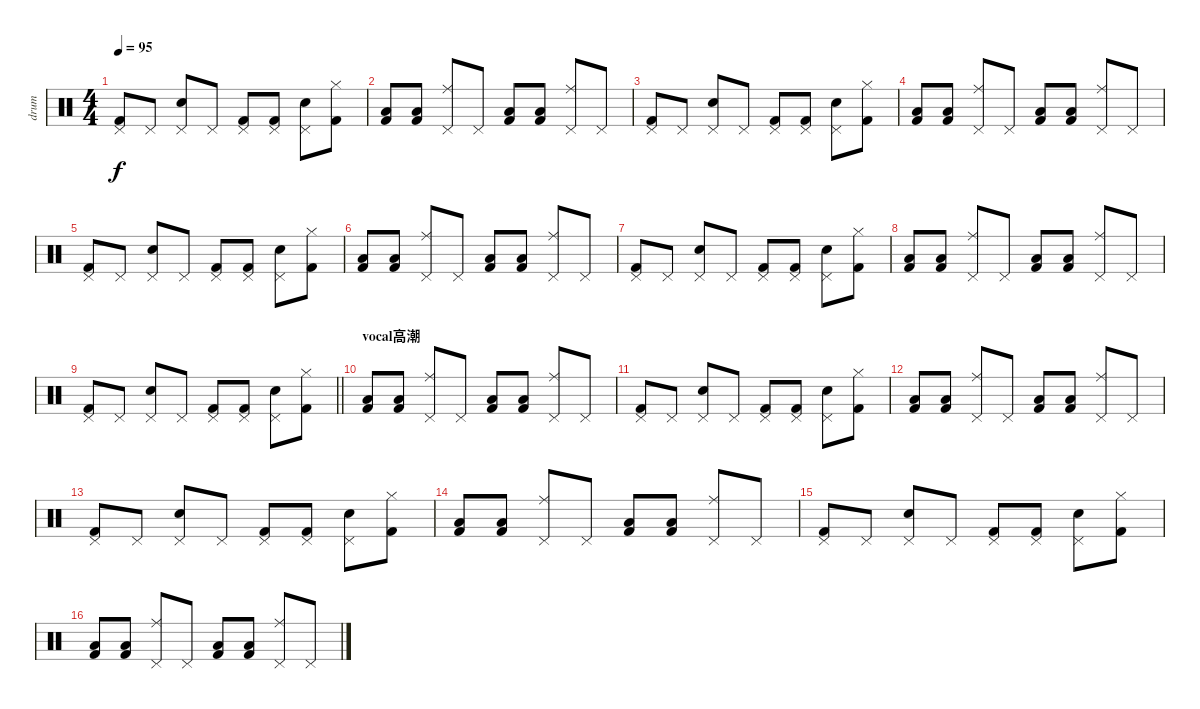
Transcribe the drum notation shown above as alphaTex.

\track ("drum" "drum") {instrument percussion}
\staff {score}
\articulation defaults
\ts (4 4)
\tempo 95
\clef neutral
\ks c
("Pedal Hi-Hat (hit)" "Kick (hit) 2").8{dy f} "Pedal Hi-Hat (hit)".8 ("Pedal Hi-Hat (hit)" "Hand Clap (hit)").8 "Pedal Hi-Hat (hit)".8 ("Pedal Hi-Hat (hit)" "Kick (hit) 2").8 ("Pedal Hi-Hat (hit)" "Kick (hit) 2").8 ("Pedal Hi-Hat (hit)" "Hand Clap (hit)").8 ("Hi-Hat (closed)" "Kick (hit) 2").8 |
("Kick (hit) 2" "Low Tom (hit)").8 ("Kick (hit) 2" "Low Tom (hit)").8 ("Pedal Hi-Hat (hit)" "Ride (middle)").8 "Pedal Hi-Hat (hit)".8 ("Kick (hit) 2" "Low Tom (hit)").8 ("Kick (hit) 2" "Low Tom (hit)").8 ("Pedal Hi-Hat (hit)" "Ride (middle)").8 "Pedal Hi-Hat (hit)".8 |
("Pedal Hi-Hat (hit)" "Kick (hit) 2").8 "Pedal Hi-Hat (hit)".8 ("Pedal Hi-Hat (hit)" "Hand Clap (hit)").8 "Pedal Hi-Hat (hit)".8 ("Pedal Hi-Hat (hit)" "Kick (hit) 2").8 ("Pedal Hi-Hat (hit)" "Kick (hit) 2").8 ("Pedal Hi-Hat (hit)" "Hand Clap (hit)").8 ("Hi-Hat (closed)" "Kick (hit) 2").8 |
("Kick (hit) 2" "Low Tom (hit)").8 ("Kick (hit) 2" "Low Tom (hit)").8 ("Pedal Hi-Hat (hit)" "Ride (middle)").8 "Pedal Hi-Hat (hit)".8 ("Kick (hit) 2" "Low Tom (hit)").8 ("Kick (hit) 2" "Low Tom (hit)").8 ("Pedal Hi-Hat (hit)" "Ride (middle)").8 "Pedal Hi-Hat (hit)".8 |
("Pedal Hi-Hat (hit)" "Kick (hit) 2").8 "Pedal Hi-Hat (hit)".8 ("Pedal Hi-Hat (hit)" "Hand Clap (hit)").8 "Pedal Hi-Hat (hit)".8 ("Pedal Hi-Hat (hit)" "Kick (hit) 2").8 ("Pedal Hi-Hat (hit)" "Kick (hit) 2").8 ("Pedal Hi-Hat (hit)" "Hand Clap (hit)").8 ("Hi-Hat (closed)" "Kick (hit) 2").8 |
("Kick (hit) 2" "Low Tom (hit)").8 ("Kick (hit) 2" "Low Tom (hit)").8 ("Pedal Hi-Hat (hit)" "Ride (middle)").8 "Pedal Hi-Hat (hit)".8 ("Kick (hit) 2" "Low Tom (hit)").8 ("Kick (hit) 2" "Low Tom (hit)").8 ("Pedal Hi-Hat (hit)" "Ride (middle)").8 "Pedal Hi-Hat (hit)".8 |
("Pedal Hi-Hat (hit)" "Kick (hit) 2").8 "Pedal Hi-Hat (hit)".8 ("Pedal Hi-Hat (hit)" "Hand Clap (hit)").8 "Pedal Hi-Hat (hit)".8 ("Pedal Hi-Hat (hit)" "Kick (hit) 2").8 ("Pedal Hi-Hat (hit)" "Kick (hit) 2").8 ("Pedal Hi-Hat (hit)" "Hand Clap (hit)").8 ("Hi-Hat (closed)" "Kick (hit) 2").8 |
("Kick (hit) 2" "Low Tom (hit)").8 ("Kick (hit) 2" "Low Tom (hit)").8 ("Pedal Hi-Hat (hit)" "Ride (middle)").8 "Pedal Hi-Hat (hit)".8 ("Kick (hit) 2" "Low Tom (hit)").8 ("Kick (hit) 2" "Low Tom (hit)").8 ("Pedal Hi-Hat (hit)" "Ride (middle)").8 "Pedal Hi-Hat (hit)".8 |
\barLineRight lightlight
("Pedal Hi-Hat (hit)" "Kick (hit) 2").8 "Pedal Hi-Hat (hit)".8 ("Pedal Hi-Hat (hit)" "Hand Clap (hit)").8 "Pedal Hi-Hat (hit)".8 ("Pedal Hi-Hat (hit)" "Kick (hit) 2").8 ("Pedal Hi-Hat (hit)" "Kick (hit) 2").8 ("Pedal Hi-Hat (hit)" "Hand Clap (hit)").8 ("Hi-Hat (closed)" "Kick (hit) 2").8 |
\section ("" "vocal高潮")
("Kick (hit) 2" "Low Tom (hit)").8 ("Kick (hit) 2" "Low Tom (hit)").8 ("Pedal Hi-Hat (hit)" "Ride (middle)").8 "Pedal Hi-Hat (hit)".8 ("Kick (hit) 2" "Low Tom (hit)").8 ("Kick (hit) 2" "Low Tom (hit)").8 ("Pedal Hi-Hat (hit)" "Ride (middle)").8 "Pedal Hi-Hat (hit)".8 |
("Pedal Hi-Hat (hit)" "Kick (hit) 2").8 "Pedal Hi-Hat (hit)".8 ("Pedal Hi-Hat (hit)" "Hand Clap (hit)").8 "Pedal Hi-Hat (hit)".8 ("Pedal Hi-Hat (hit)" "Kick (hit) 2").8 ("Pedal Hi-Hat (hit)" "Kick (hit) 2").8 ("Pedal Hi-Hat (hit)" "Hand Clap (hit)").8 ("Hi-Hat (closed)" "Kick (hit) 2").8 |
("Kick (hit) 2" "Low Tom (hit)").8 ("Kick (hit) 2" "Low Tom (hit)").8 ("Pedal Hi-Hat (hit)" "Ride (middle)").8 "Pedal Hi-Hat (hit)".8 ("Kick (hit) 2" "Low Tom (hit)").8 ("Kick (hit) 2" "Low Tom (hit)").8 ("Pedal Hi-Hat (hit)" "Ride (middle)").8 "Pedal Hi-Hat (hit)".8 |
("Pedal Hi-Hat (hit)" "Kick (hit) 2").8 "Pedal Hi-Hat (hit)".8 ("Pedal Hi-Hat (hit)" "Hand Clap (hit)").8 "Pedal Hi-Hat (hit)".8 ("Pedal Hi-Hat (hit)" "Kick (hit) 2").8 ("Pedal Hi-Hat (hit)" "Kick (hit) 2").8 ("Pedal Hi-Hat (hit)" "Hand Clap (hit)").8 ("Hi-Hat (closed)" "Kick (hit) 2").8 |
("Kick (hit) 2" "Low Tom (hit)").8 ("Kick (hit) 2" "Low Tom (hit)").8 ("Pedal Hi-Hat (hit)" "Ride (middle)").8 "Pedal Hi-Hat (hit)".8 ("Kick (hit) 2" "Low Tom (hit)").8 ("Kick (hit) 2" "Low Tom (hit)").8 ("Pedal Hi-Hat (hit)" "Ride (middle)").8 "Pedal Hi-Hat (hit)".8 |
("Pedal Hi-Hat (hit)" "Kick (hit) 2").8 "Pedal Hi-Hat (hit)".8 ("Pedal Hi-Hat (hit)" "Hand Clap (hit)").8 "Pedal Hi-Hat (hit)".8 ("Pedal Hi-Hat (hit)" "Kick (hit) 2").8 ("Pedal Hi-Hat (hit)" "Kick (hit) 2").8 ("Pedal Hi-Hat (hit)" "Hand Clap (hit)").8 ("Hi-Hat (closed)" "Kick (hit) 2").8 |
("Kick (hit) 2" "Low Tom (hit)").8 ("Kick (hit) 2" "Low Tom (hit)").8 ("Pedal Hi-Hat (hit)" "Ride (middle)").8 "Pedal Hi-Hat (hit)".8 ("Kick (hit) 2" "Low Tom (hit)").8 ("Kick (hit) 2" "Low Tom (hit)").8 ("Pedal Hi-Hat (hit)" "Ride (middle)").8 "Pedal Hi-Hat (hit)".8
